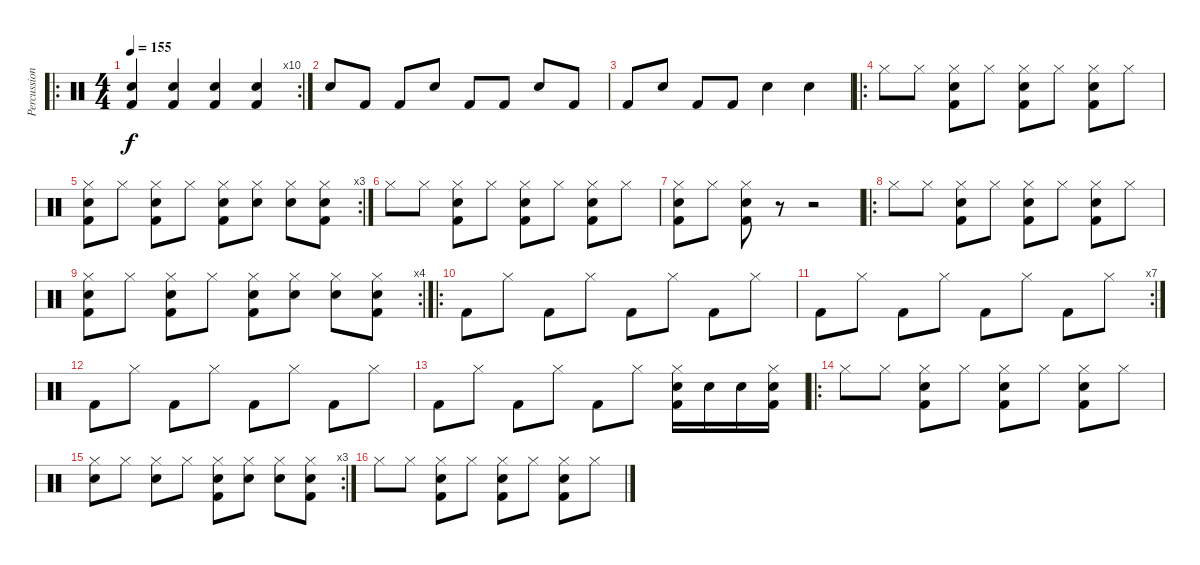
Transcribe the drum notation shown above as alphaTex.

\track ("Percussion" "Percussion") {instrument percussion}
\staff {score}
\articulation defaults
\ro
\rc 10
\ts (4 4)
\tempo 155
\clef neutral
\ks c
("Snare (hit) 2" "Kick (hit) 2").4{dy f} ("Snare (hit) 2" "Kick (hit) 2").4 ("Snare (hit) 2" "Kick (hit) 2").4 ("Snare (hit) 2" "Kick (hit) 2").4 |
"Snare (hit) 2".8 "Kick (hit) 2".8 "Kick (hit) 2".8 "Snare (hit) 2".8 "Kick (hit) 2".8 "Kick (hit) 2".8 "Snare (hit) 2".8 "Kick (hit) 2".8 |
"Kick (hit) 2".8 "Snare (hit) 2".8 "Kick (hit) 2".8 "Kick (hit) 2".8 "Snare (hit) 2".4 "Snare (hit) 2".4 |
\ro "Hi-Hat (closed)".8 "Hi-Hat (closed)".8
("Hi-Hat (closed)" "Snare (hit) 2" "Kick (hit) 2").8 "Hi-Hat (closed)".8 ("Hi-Hat (closed)" "Snare (hit) 2" "Kick (hit) 2").8 "Hi-Hat (closed)".8 ("Hi-Hat (closed)" "Snare (hit) 2" "Kick (hit) 2").8 "Hi-Hat (closed)".8 |
\rc 3
("Hi-Hat (closed)" "Snare (hit) 2" "Kick (hit) 2").8 "Hi-Hat (closed)".8 ("Hi-Hat (closed)" "Snare (hit) 2" "Kick (hit) 2").8 "Hi-Hat (closed)".8 ("Hi-Hat (closed)" "Snare (hit) 2" "Kick (hit) 2").8 ("Hi-Hat (closed)" "Snare (hit) 2").8 ("Hi-Hat (closed)" "Snare (hit) 2").8 ("Hi-Hat (closed)" "Snare (hit) 2" "Kick (hit) 2").8 |
"Hi-Hat (closed)".8 "Hi-Hat (closed)".8 ("Hi-Hat (closed)" "Snare (hit) 2" "Kick (hit) 2").8 "Hi-Hat (closed)".8 ("Hi-Hat (closed)" "Snare (hit) 2" "Kick (hit) 2").8 "Hi-Hat (closed)".8 ("Hi-Hat (closed)" "Snare (hit) 2" "Kick (hit) 2").8 "Hi-Hat (closed)".8 |
("Hi-Hat (closed)" "Snare (hit) 2" "Kick (hit) 2").8 "Hi-Hat (closed)".8 ("Hi-Hat (closed)" "Snare (hit) 2" "Kick (hit) 2").8 r.8 r.2 |
\ro "Hi-Hat (closed)".8 "Hi-Hat (closed)".8
("Hi-Hat (closed)" "Snare (hit) 2" "Kick (hit) 2").8 "Hi-Hat (closed)".8 ("Hi-Hat (closed)" "Snare (hit) 2" "Kick (hit) 2").8 "Hi-Hat (closed)".8 ("Hi-Hat (closed)" "Snare (hit) 2" "Kick (hit) 2").8 "Hi-Hat (closed)".8 |
\rc 4
("Hi-Hat (closed)" "Snare (hit) 2" "Kick (hit) 2").8 "Hi-Hat (closed)".8 ("Hi-Hat (closed)" "Snare (hit) 2" "Kick (hit) 2").8 "Hi-Hat (closed)".8 ("Hi-Hat (closed)" "Snare (hit) 2" "Kick (hit) 2").8 ("Hi-Hat (closed)" "Snare (hit) 2").8 ("Hi-Hat (closed)" "Snare (hit) 2").8 ("Hi-Hat (closed)" "Snare (hit) 2" "Kick (hit) 2").8 |
\ro "Kick (hit) 2".8 "Hi-Hat (closed)".8 "Kick (hit) 2".8 "Hi-Hat (closed)".8 "Kick (hit) 2".8 "Hi-Hat (closed)".8 "Kick (hit) 2".8 "Hi-Hat (closed)".8
|
\rc 7 "Kick (hit) 2".8 "Hi-Hat (closed)".8 "Kick (hit) 2".8 "Hi-Hat (closed)".8 "Kick (hit) 2".8 "Hi-Hat (closed)".8 "Kick (hit) 2".8 "Hi-Hat (closed)".8
|
"Kick (hit) 2".8 "Hi-Hat (closed)".8 "Kick (hit) 2".8 "Hi-Hat (closed)".8 "Kick (hit) 2".8 "Hi-Hat (closed)".8 "Kick (hit) 2".8 "Hi-Hat (closed)".8 |
"Kick (hit) 2".8 "Hi-Hat (closed)".8 "Kick (hit) 2".8 "Hi-Hat (closed)".8 "Kick (hit) 2".8 "Hi-Hat (closed)".8 ("Hi-Hat (closed)" "Snare (hit) 2" "Kick (hit) 2").16 "Snare (hit) 2".16 "Snare (hit) 2".16 ("Hi-Hat (closed)" "Snare (hit) 2" "Kick (hit) 2").16 |
\ro "Hi-Hat (closed)".8 "Hi-Hat (closed)".8
("Hi-Hat (closed)" "Snare (hit) 2" "Kick (hit) 2").8 "Hi-Hat (closed)".8 ("Hi-Hat (closed)" "Snare (hit) 2" "Kick (hit) 2").8 "Hi-Hat (closed)".8 ("Hi-Hat (closed)" "Snare (hit) 2" "Kick (hit) 2").8 "Hi-Hat (closed)".8 |
\rc 3
("Hi-Hat (closed)" "Snare (hit) 2").8 "Hi-Hat (closed)".8 ("Hi-Hat (closed)" "Snare (hit) 2").8 "Hi-Hat (closed)".8 ("Hi-Hat (closed)" "Snare (hit) 2" "Kick (hit) 2").8 ("Hi-Hat (closed)" "Snare (hit) 2").8 ("Hi-Hat (closed)" "Snare (hit) 2").8 ("Hi-Hat (closed)" "Snare (hit) 2" "Kick (hit) 2").8 |
"Hi-Hat (closed)".8 "Hi-Hat (closed)".8 ("Hi-Hat (closed)" "Snare (hit) 2" "Kick (hit) 2").8 "Hi-Hat (closed)".8 ("Hi-Hat (closed)" "Snare (hit) 2" "Kick (hit) 2").8 "Hi-Hat (closed)".8 ("Hi-Hat (closed)" "Snare (hit) 2" "Kick (hit) 2").8 "Hi-Hat (closed)".8
